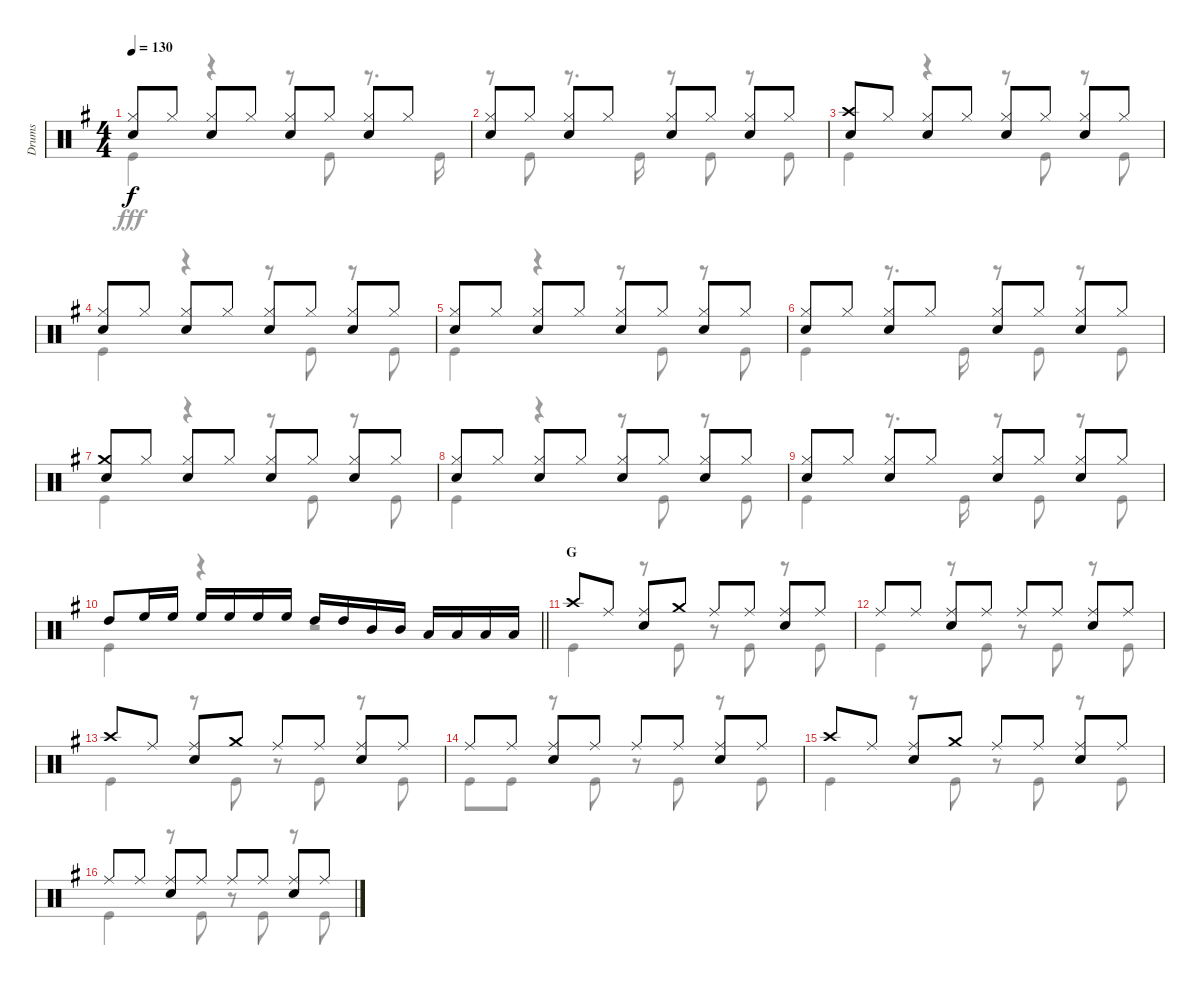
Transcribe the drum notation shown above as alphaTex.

\track ("Drums" "Drums") {instrument percussion}
\staff {score}
\articulation defaults
\voice
\ts (4 4)
\tempo 130
\clef neutral
\ks g
("Hi-Hat (closed)" "Snare (hit) 2").8{dy f} "Hi-Hat (closed)".8 ("Hi-Hat (closed)" "Snare (hit) 2").8 "Hi-Hat (closed)".8 ("Hi-Hat (closed)" "Snare (hit) 2").8 "Hi-Hat (closed)".8 ("Hi-Hat (closed)" "Snare (hit) 2").8 "Hi-Hat (closed)".8 |
("Hi-Hat (closed)" "Snare (hit) 2").8 "Hi-Hat (closed)".8 ("Hi-Hat (closed)" "Snare (hit) 2").8 "Hi-Hat (closed)".8 ("Hi-Hat (closed)" "Snare (hit) 2").8 "Hi-Hat (closed)".8 ("Hi-Hat (closed)" "Snare (hit) 2").8 "Hi-Hat (closed)".8 |
("Crash high (hit)" "Snare (hit) 2").8 "Hi-Hat (closed)".8 ("Hi-Hat (closed)" "Snare (hit) 2").8 "Hi-Hat (closed)".8 ("Hi-Hat (closed)" "Snare (hit) 2").8 "Hi-Hat (closed)".8 ("Hi-Hat (closed)" "Snare (hit) 2").8 "Hi-Hat (closed)".8 |
("Hi-Hat (closed)" "Snare (hit) 2").8 "Hi-Hat (closed)".8 ("Hi-Hat (closed)" "Snare (hit) 2").8 "Hi-Hat (closed)".8 ("Hi-Hat (closed)" "Snare (hit) 2").8 "Hi-Hat (closed)".8 ("Hi-Hat (closed)" "Snare (hit) 2").8 "Hi-Hat (closed)".8 |
("Hi-Hat (closed)" "Snare (hit) 2").8 "Hi-Hat (closed)".8 ("Hi-Hat (closed)" "Snare (hit) 2").8 "Hi-Hat (closed)".8 ("Hi-Hat (closed)" "Snare (hit) 2").8 "Hi-Hat (closed)".8 ("Hi-Hat (closed)" "Snare (hit) 2").8 "Hi-Hat (closed)".8 |
("Hi-Hat (closed)" "Snare (hit) 2").8 "Hi-Hat (closed)".8 ("Hi-Hat (closed)" "Snare (hit) 2").8 "Hi-Hat (closed)".8 ("Hi-Hat (closed)" "Snare (hit) 2").8 "Hi-Hat (closed)".8 ("Hi-Hat (closed)" "Snare (hit) 2").8 "Hi-Hat (closed)".8 |
("Crash medium (hit)" "Snare (hit) 2").8 "Hi-Hat (closed)".8 ("Hi-Hat (closed)" "Snare (hit) 2").8 "Hi-Hat (closed)".8 ("Hi-Hat (closed)" "Snare (hit) 2").8 "Hi-Hat (closed)".8 ("Hi-Hat (closed)" "Snare (hit) 2").8 "Hi-Hat (closed)".8 |
("Hi-Hat (closed)" "Snare (hit) 2").8 "Hi-Hat (closed)".8 ("Hi-Hat (closed)" "Snare (hit) 2").8 "Hi-Hat (closed)".8 ("Hi-Hat (closed)" "Snare (hit) 2").8 "Hi-Hat (closed)".8 ("Hi-Hat (closed)" "Snare (hit) 2").8 "Hi-Hat (closed)".8 |
("Hi-Hat (closed)" "Snare (hit) 2").8 "Hi-Hat (closed)".8 ("Hi-Hat (closed)" "Snare (hit) 2").8 "Hi-Hat (closed)".8 ("Hi-Hat (closed)" "Snare (hit) 2").8 "Hi-Hat (closed)".8 ("Hi-Hat (closed)" "Snare (hit) 2").8 "Hi-Hat (closed)".8 |
\barLineRight lightlight "High Tom (hit)".8 "High Floor Tom (hit)".16 "High Floor Tom (hit)".16 "High Floor Tom (hit)".16 "High Floor Tom (hit)".16 "High Floor Tom (hit)".16 "High Floor Tom (hit)".16 "High Tom (hit)".16 "High Tom (hit)".16 "Mid Tom (hit)".16 "Mid Tom (hit)".16 "Low Tom (hit)".16 "Low Tom (hit)".16 "Low Tom (hit)".16 "Low Tom (hit)".16
|
\section ("" "G")
"Crash high (hit)".8 "Ride (middle)".8 ("Ride (middle)" "Snare (hit) 2").8 "Crash medium (hit)".8 "Ride (middle)".8 "Ride (middle)".8 ("Ride (middle)" "Snare (hit) 2").8 "Ride (middle)".8 |
"Ride (middle)".8 "Ride (middle)".8 ("Ride (middle)" "Snare (hit) 2").8 "Ride (middle)".8 "Ride (middle)".8 "Ride (middle)".8 ("Ride (middle)" "Snare (hit) 2").8 "Ride (middle)".8 |
"Crash high (hit)".8 "Ride (middle)".8 ("Ride (middle)" "Snare (hit) 2").8 "Crash medium (hit)".8 "Ride (middle)".8 "Ride (middle)".8 ("Ride (middle)" "Snare (hit) 2").8 "Ride (middle)".8 |
"Ride (middle)".8 "Ride (middle)".8 ("Ride (middle)" "Snare (hit) 2").8 "Ride (middle)".8 "Ride (middle)".8 "Ride (middle)".8 ("Ride (middle)" "Snare (hit) 2").8 "Ride (middle)".8 |
"Crash high (hit)".8 "Ride (middle)".8 ("Ride (middle)" "Snare (hit) 2").8 "Crash medium (hit)".8 "Ride (middle)".8 "Ride (middle)".8 ("Ride (middle)" "Snare (hit) 2").8 "Ride (middle)".8 |
"Ride (middle)".8 "Ride (middle)".8 ("Ride (middle)" "Snare (hit) 2").8 "Ride (middle)".8 "Ride (middle)".8 "Ride (middle)".8 ("Ride (middle)" "Snare (hit) 2").8 "Ride (middle)".8
\voice
\clef neutral
\ottava regular
\simile none
\ks g "Kick (hit)".4{dy fff}
r.4 r.8 "Kick (hit)".8 r.8{d} "Kick (hit)".16 |
r.8 "Kick (hit)".8 r.8{d} "Kick (hit)".16 r.8 "Kick (hit)".8 r.8 "Kick (hit)".8 |
"Kick (hit)".4 r.4 r.8 "Kick (hit)".8 r.8 "Kick (hit)".8 |
"Kick (hit)".4 r.4 r.8 "Kick (hit)".8 r.8 "Kick (hit)".8 |
"Kick (hit)".4 r.4 r.8 "Kick (hit)".8 r.8 "Kick (hit)".8 |
"Kick (hit)".4 r.8{d} "Kick (hit)".16 r.8 "Kick (hit)".8 r.8 "Kick (hit)".8 |
"Kick (hit)".4 r.4 r.8 "Kick (hit)".8 r.8 "Kick (hit)".8 |
"Kick (hit)".4 r.4 r.8 "Kick (hit)".8 r.8 "Kick (hit)".8 |
"Kick (hit)".4 r.8{d} "Kick (hit)".16 r.8 "Kick (hit)".8 r.8 "Kick (hit)".8 |
\barLineRight lightlight "Kick (hit)".4
r.4 r.2 |
"Kick (hit)".4 r.8 "Kick (hit)".8 r.8 "Kick (hit)".8 r.8 "Kick (hit)".8 |
"Kick (hit)".4 r.8 "Kick (hit)".8 r.8 "Kick (hit)".8 r.8 "Kick (hit)".8 |
"Kick (hit)".4 r.8 "Kick (hit)".8 r.8 "Kick (hit)".8 r.8 "Kick (hit)".8 |
"Kick (hit)".8 "Kick (hit)".8 r.8 "Kick (hit)".8 r.8 "Kick (hit)".8 r.8 "Kick (hit)".8 |
"Kick (hit)".4 r.8 "Kick (hit)".8 r.8 "Kick (hit)".8 r.8 "Kick (hit)".8 |
"Kick (hit)".4 r.8 "Kick (hit)".8 r.8 "Kick (hit)".8 r.8 "Kick (hit)".8
